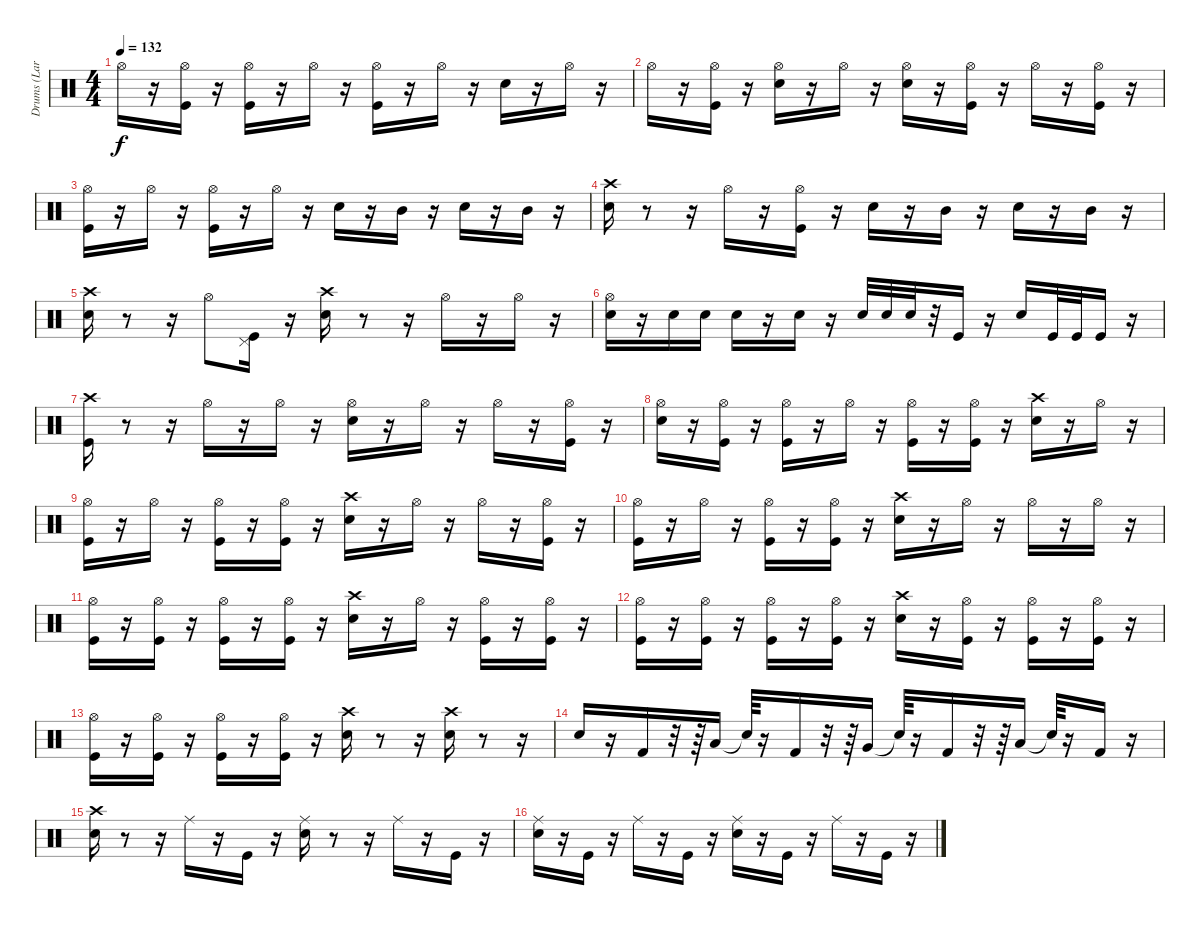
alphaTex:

\track ("Drums (Lars)" "Drums (Lar") {instrument percussion}
\staff {score}
\articulation defaults
\ts (4 4)
\tempo 132
\clef neutral
\ks c "Hi-Hat (open)".16{dy f}
r.16 ("Kick (hit)" "Hi-Hat (open)").16 r.16 ("Kick (hit)" "Hi-Hat (open)").16 r.16 "Hi-Hat (open)".16 r.16 ("Kick (hit)" "Hi-Hat (open)").16 r.16 "Hi-Hat (open)".16 r.16 "Snare (hit) 2".16 r.16 "Hi-Hat (open)".16 r.16 |
"Hi-Hat (open)".16 r.16 ("Kick (hit)" "Hi-Hat (open)").16 r.16 ("Snare (hit) 2" "Hi-Hat (open)").16 r.16 "Hi-Hat (open)".16 r.16 ("Snare (hit) 2" "Hi-Hat (open)").16 r.16 ("Kick (hit)" "Hi-Hat (open)").16 r.16 "Hi-Hat (open)".16 r.16 ("Kick (hit)" "Hi-Hat (open)").16 r.16 |
("Kick (hit)" "Hi-Hat (open)").16 r.16 "Hi-Hat (open)".16 r.16 ("Kick (hit)" "Hi-Hat (open)").16 r.16 "Hi-Hat (open)".16 r.16 "Snare (hit) 2".16 r.16 "Mid Tom (hit)".16 r.16 "Snare (hit) 2".16 r.16 "Mid Tom (hit)".16 r.16 |
("Snare (hit) 2" "Crash high (hit)").16 r.8 r.16 "Hi-Hat (open)".16 r.16 ("Kick (hit)" "Hi-Hat (open)").16 r.16 "Snare (hit) 2".16 r.16 "Mid Tom (hit)".16 r.16 "Snare (hit) 2".16 r.16 "Mid Tom (hit)".16 r.16 |
("Snare (hit) 2" "Crash high (hit)").16 r.8 r.16 "Hi-Hat (open)".8 ("Pedal Hi-Hat (hit)" "Kick (hit)").16 r.16 ("Snare (hit) 2" "Crash high (hit)").16 r.8 r.16 "Hi-Hat (open)".16 r.16 "Hi-Hat (open)".16 r.16 |
("Snare (hit) 2" "Hi-Hat (open)").16 r.16 "Snare (hit) 2".16 "Snare (hit) 2".16 "Snare (hit) 2".16 r.16 "Snare (hit) 2".16 r.16 "Snare (hit) 2".32 "Snare (hit) 2".32 "Snare (hit) 2".32 r.32 "Kick (hit)".16 r.16 "Snare (hit) 2".16 "Kick (hit)".32 "Kick (hit)".32 "Kick (hit)".16 r.16 |
("Crash high (hit)" "Kick (hit)").16 r.8 r.16 "Hi-Hat (open)".16 r.16 "Hi-Hat (open)".16 r.16 ("Snare (hit) 2" "Hi-Hat (open)").16 r.16 "Hi-Hat (open)".16 r.16 "Hi-Hat (open)".16 r.16 ("Kick (hit)" "Hi-Hat (open)").16 r.16 |
("Snare (hit) 2" "Hi-Hat (open)").16 r.16 ("Kick (hit)" "Hi-Hat (open)").16 r.16 ("Kick (hit)" "Hi-Hat (open)").16 r.16 "Hi-Hat (open)".16 r.16 ("Kick (hit)" "Hi-Hat (open)").16 r.16 ("Kick (hit)" "Hi-Hat (open)").16 r.16 ("Snare (hit) 2" "Crash high (hit)").16 r.16 "Hi-Hat (open)".16 r.16 |
("Kick (hit)" "Hi-Hat (open)").16 r.16 "Hi-Hat (open)".16 r.16 ("Kick (hit)" "Hi-Hat (open)").16 r.16 ("Kick (hit)" "Hi-Hat (open)").16 r.16 ("Snare (hit) 2" "Crash high (hit)").16 r.16 "Hi-Hat (open)".16 r.16 "Hi-Hat (open)".16 r.16 ("Kick (hit)" "Hi-Hat (open)").16 r.16 |
("Kick (hit)" "Hi-Hat (open)").16 r.16 "Hi-Hat (open)".16 r.16 ("Kick (hit)" "Hi-Hat (open)").16 r.16 ("Kick (hit)" "Hi-Hat (open)").16 r.16 ("Snare (hit) 2" "Crash high (hit)").16 r.16 "Hi-Hat (open)".16 r.16 "Hi-Hat (open)".16 r.16 "Hi-Hat (open)".16 r.16 |
("Kick (hit)" "Hi-Hat (open)").16 r.16 ("Kick (hit)" "Hi-Hat (open)").16 r.16 ("Kick (hit)" "Hi-Hat (open)").16 r.16 ("Kick (hit)" "Hi-Hat (open)").16 r.16 ("Snare (hit) 2" "Crash high (hit)").16 r.16 "Hi-Hat (open)".16 r.16 ("Kick (hit)" "Hi-Hat (open)").16 r.16 ("Kick (hit)" "Hi-Hat (open)").16 r.16 |
("Kick (hit)" "Hi-Hat (open)").16 r.16 ("Kick (hit)" "Hi-Hat (open)").16 r.16 ("Kick (hit)" "Hi-Hat (open)").16 r.16 ("Kick (hit)" "Hi-Hat (open)").16 r.16 ("Snare (hit) 2" "Crash high (hit)").16 r.16 ("Kick (hit)" "Hi-Hat (open)").16 r.16 ("Kick (hit)" "Hi-Hat (open)").16 r.16 ("Kick (hit)" "Hi-Hat (open)").16 r.16 |
("Kick (hit)" "Hi-Hat (open)").16 r.16 ("Kick (hit)" "Hi-Hat (open)").16 r.16 ("Kick (hit)" "Hi-Hat (open)").16 r.16 ("Kick (hit)" "Hi-Hat (open)").16 r.16 ("Snare (hit) 2" "Crash high (hit)").16 r.8 r.16 ("Snare (hit) 2" "Crash high (hit)").16 r.8 r.16 |
"Snare (hit) 2".16 r.16 "Kick (hit) 2".16 r.32 r.64 "Low Tom (hit)".16 "Snare (hit)"{t}.64 r.16 "Kick (hit) 2".16 r.32 r.64 "Very Low Tom (hit)".16 "Snare (hit)"{t}.64 r.16 "Kick (hit) 2".16 r.32 r.64 "Low Floor Tom (hit)".16 "Snare (hit)"{t}.64 r.16 "Kick (hit) 2".16 r.16 |
("Snare (hit) 2" "Crash high (hit)").16 r.8 r.16 "Ride (middle)".16 r.16 "Kick (hit)".16 r.16 ("Snare (hit) 2" "Ride (middle)").16 r.8 r.16 "Ride (middle)".16 r.16 "Kick (hit)".16 r.16 |
("Snare (hit) 2" "Ride (middle)").16 r.16 "Kick (hit)".16 r.16 "Ride (middle)".16 r.16 "Kick (hit)".16 r.16 ("Snare (hit) 2" "Ride (middle)").16 r.16 "Kick (hit)".16 r.16 "Ride (middle)".16 r.16 "Kick (hit)".16 r.16
